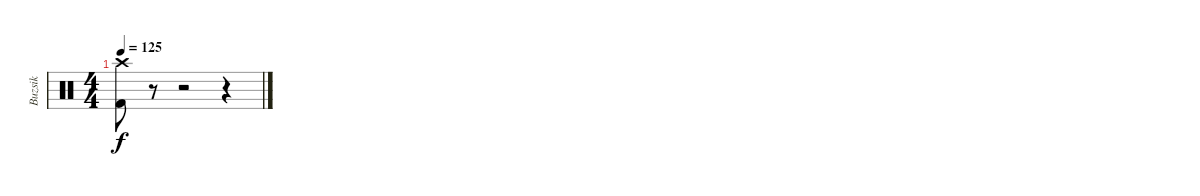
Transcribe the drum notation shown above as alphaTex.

\track ("Buzsik" "Buzsik") {instrument percussion}
\staff {score}
\articulation defaults
\ts (4 4)
\tempo 125
\clef neutral
\ks c
("Crash high (hit)" "Kick (hit) 2").8{dy f} r.8 r.2 r.4
